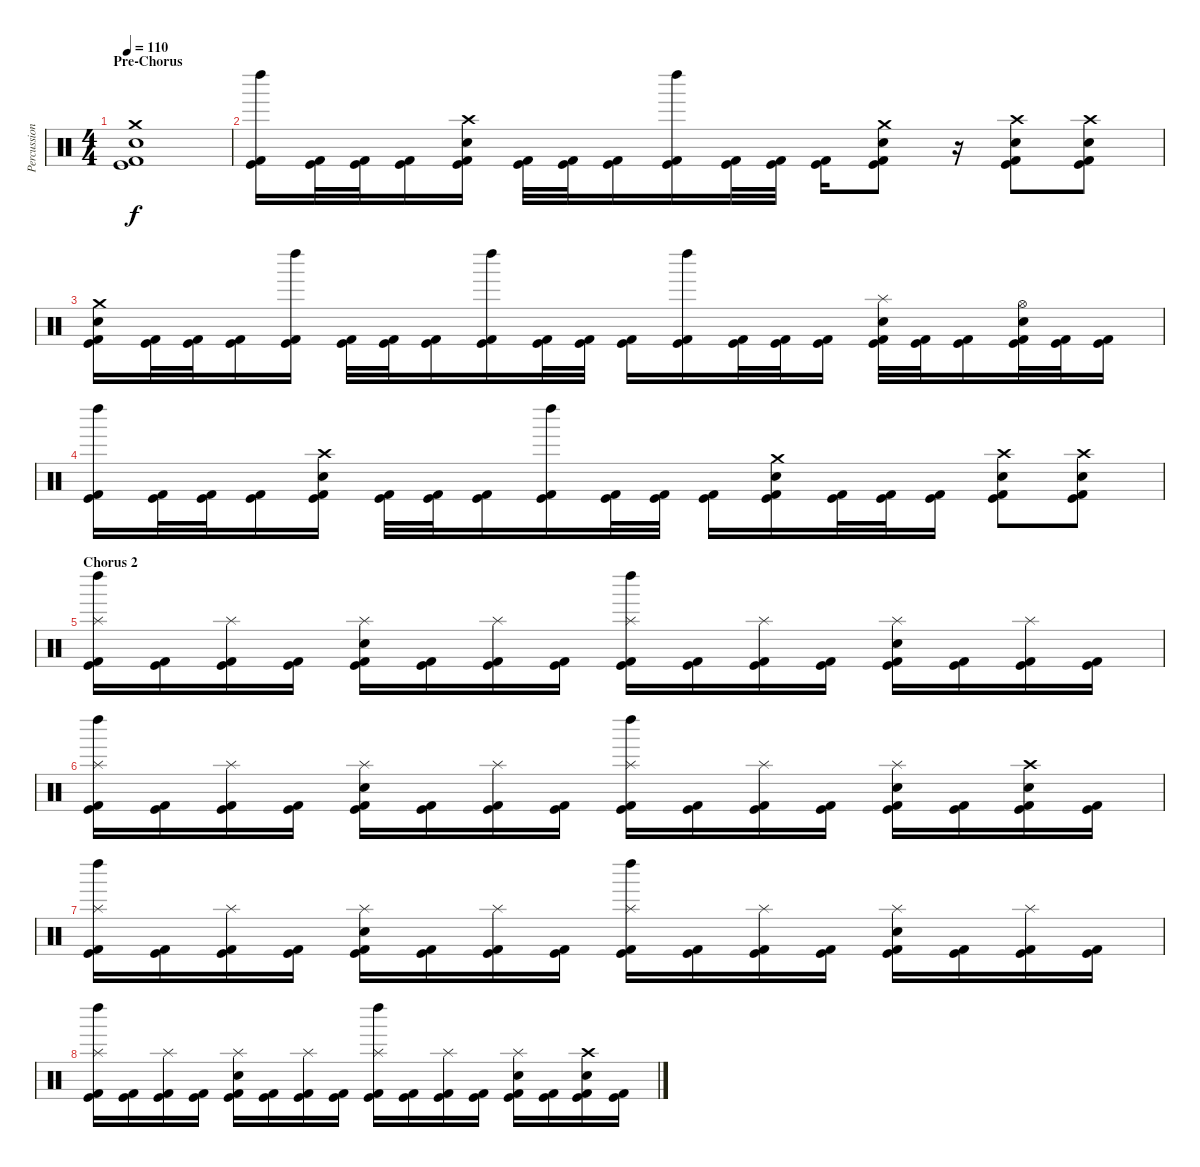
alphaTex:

\track ("Percussions" "Percussion") {instrument percussion}
\staff {score}
\articulation defaults
\ts (4 4)
\section ("" "Pre-Chorus")
\tempo 110
\clef neutral
\ks c
("Kick (hit)" "Kick (hit) 2" "Electric Snare (hit)" "Crash medium (hit)").1{dy f} |
("Kick (hit)" "Kick (hit) 2" "Left Maraca (hit)").16 ("Kick (hit)" "Kick (hit) 2").32 ("Kick (hit)" "Kick (hit) 2").32 ("Kick (hit)" "Kick (hit) 2").16 ("Kick (hit)" "Kick (hit) 2" "Electric Snare (hit)" "Crash high (hit)").16 ("Kick (hit)" "Kick (hit) 2").32 ("Kick (hit)" "Kick (hit) 2").32 ("Kick (hit)" "Kick (hit) 2").16 ("Kick (hit)" "Kick (hit) 2" "Left Maraca (hit)").16 ("Kick (hit)" "Kick (hit) 2").32 ("Kick (hit)" "Kick (hit) 2").32 ("Kick (hit)" "Kick (hit) 2").16 ("Kick (hit)" "Kick (hit) 2" "Electric Snare (hit)" "Crash medium (hit)").8 r.16 ("Kick (hit)" "Kick (hit) 2" "Electric Snare (hit)" "Crash high (hit)").8 ("Kick (hit)" "Kick (hit) 2" "Electric Snare (hit)" "Crash high (hit)").8 |
("Kick (hit)" "Kick (hit) 2" "Electric Snare (hit)" "Crash medium (hit)").16 ("Kick (hit)" "Kick (hit) 2").32 ("Kick (hit)" "Kick (hit) 2").32 ("Kick (hit)" "Kick (hit) 2").16 ("Kick (hit)" "Kick (hit) 2" "Left Maraca (hit)").16 ("Kick (hit)" "Kick (hit) 2").32 ("Kick (hit)" "Kick (hit) 2").32 ("Kick (hit)" "Kick (hit) 2").16 ("Kick (hit)" "Kick (hit) 2" "Left Maraca (hit)").16 ("Kick (hit)" "Kick (hit) 2").32 ("Kick (hit)" "Kick (hit) 2").32 ("Kick (hit)" "Kick (hit) 2").16 ("Kick (hit)" "Kick (hit) 2" "Left Maraca (hit)").16 ("Kick (hit)" "Kick (hit) 2").32 ("Kick (hit)" "Kick (hit) 2").32 ("Kick (hit)" "Kick (hit) 2").16 ("Kick (hit)" "Kick (hit) 2" "Electric Snare (hit)" "Splash (hit)").32 ("Kick (hit)" "Kick (hit) 2").32 ("Kick (hit)" "Kick (hit) 2").16 ("Kick (hit)" "Kick (hit) 2" "Electric Snare (hit)" "Hi-Hat (open)").32 ("Kick (hit)" "Kick (hit) 2").32 ("Kick (hit)" "Kick (hit) 2").16 |
("Kick (hit)" "Kick (hit) 2" "Left Maraca (hit)").16 ("Kick (hit)" "Kick (hit) 2").32 ("Kick (hit)" "Kick (hit) 2").32 ("Kick (hit)" "Kick (hit) 2").16 ("Kick (hit)" "Kick (hit) 2" "Electric Snare (hit)" "Crash high (hit)").16 ("Kick (hit)" "Kick (hit) 2").32 ("Kick (hit)" "Kick (hit) 2").32 ("Kick (hit)" "Kick (hit) 2").16 ("Kick (hit)" "Kick (hit) 2" "Left Maraca (hit)").16 ("Kick (hit)" "Kick (hit) 2").32 ("Kick (hit)" "Kick (hit) 2").32 ("Kick (hit)" "Kick (hit) 2").16 ("Kick (hit)" "Kick (hit) 2" "Electric Snare (hit)" "Crash medium (hit)").16 ("Kick (hit)" "Kick (hit) 2").32 ("Kick (hit)" "Kick (hit) 2").32 ("Kick (hit)" "Kick (hit) 2").16 ("Kick (hit)" "Kick (hit) 2" "Electric Snare (hit)" "Crash high (hit)").8 ("Kick (hit)" "Kick (hit) 2" "Electric Snare (hit)" "Crash high (hit)").8 |
\section ("" "Chorus 2")
("Kick (hit)" "Kick (hit) 2" "Splash (hit)" "Left Maraca (hit)").16 ("Kick (hit)" "Kick (hit) 2").16 ("Kick (hit)" "Kick (hit) 2" "Splash (hit)").16 ("Kick (hit)" "Kick (hit) 2").16 ("Kick (hit)" "Kick (hit) 2" "Splash (hit)" "Electric Snare (hit)").16 ("Kick (hit)" "Kick (hit) 2").16 ("Kick (hit)" "Kick (hit) 2" "Splash (hit)").16 ("Kick (hit)" "Kick (hit) 2").16 ("Kick (hit)" "Kick (hit) 2" "Splash (hit)" "Left Maraca (hit)").16 ("Kick (hit)" "Kick (hit) 2").16 ("Kick (hit)" "Kick (hit) 2" "Splash (hit)").16 ("Kick (hit)" "Kick (hit) 2").16 ("Kick (hit)" "Kick (hit) 2" "Splash (hit)" "Electric Snare (hit)").16 ("Kick (hit)" "Kick (hit) 2").16 ("Kick (hit)" "Kick (hit) 2" "Splash (hit)").16 ("Kick (hit)" "Kick (hit) 2").16 |
("Kick (hit)" "Kick (hit) 2" "Splash (hit)" "Left Maraca (hit)").16 ("Kick (hit)" "Kick (hit) 2").16 ("Kick (hit)" "Kick (hit) 2" "Splash (hit)").16 ("Kick (hit)" "Kick (hit) 2").16 ("Kick (hit)" "Kick (hit) 2" "Splash (hit)" "Electric Snare (hit)").16 ("Kick (hit)" "Kick (hit) 2").16 ("Kick (hit)" "Kick (hit) 2" "Splash (hit)").16 ("Kick (hit)" "Kick (hit) 2").16 ("Kick (hit)" "Kick (hit) 2" "Splash (hit)" "Left Maraca (hit)").16 ("Kick (hit)" "Kick (hit) 2").16 ("Kick (hit)" "Kick (hit) 2" "Splash (hit)").16 ("Kick (hit)" "Kick (hit) 2").16 ("Kick (hit)" "Kick (hit) 2" "Splash (hit)" "Electric Snare (hit)").16 ("Kick (hit)" "Kick (hit) 2").16 ("Kick (hit)" "Kick (hit) 2" "Crash high (hit)" "Electric Snare (hit)").16 ("Kick (hit)" "Kick (hit) 2").16 |
("Kick (hit)" "Kick (hit) 2" "Splash (hit)" "Left Maraca (hit)").16 ("Kick (hit)" "Kick (hit) 2").16 ("Kick (hit)" "Kick (hit) 2" "Splash (hit)").16 ("Kick (hit)" "Kick (hit) 2").16 ("Kick (hit)" "Kick (hit) 2" "Splash (hit)" "Electric Snare (hit)").16 ("Kick (hit)" "Kick (hit) 2").16 ("Kick (hit)" "Kick (hit) 2" "Splash (hit)").16 ("Kick (hit)" "Kick (hit) 2").16 ("Kick (hit)" "Kick (hit) 2" "Splash (hit)" "Left Maraca (hit)").16 ("Kick (hit)" "Kick (hit) 2").16 ("Kick (hit)" "Kick (hit) 2" "Splash (hit)").16 ("Kick (hit)" "Kick (hit) 2").16 ("Kick (hit)" "Kick (hit) 2" "Splash (hit)" "Electric Snare (hit)").16 ("Kick (hit)" "Kick (hit) 2").16 ("Kick (hit)" "Kick (hit) 2" "Splash (hit)").16 ("Kick (hit)" "Kick (hit) 2").16 |
("Kick (hit)" "Kick (hit) 2" "Splash (hit)" "Left Maraca (hit)").16 ("Kick (hit)" "Kick (hit) 2").16 ("Kick (hit)" "Kick (hit) 2" "Splash (hit)").16 ("Kick (hit)" "Kick (hit) 2").16 ("Kick (hit)" "Kick (hit) 2" "Splash (hit)" "Electric Snare (hit)").16 ("Kick (hit)" "Kick (hit) 2").16 ("Kick (hit)" "Kick (hit) 2" "Splash (hit)").16 ("Kick (hit)" "Kick (hit) 2").16 ("Kick (hit)" "Kick (hit) 2" "Splash (hit)" "Left Maraca (hit)").16 ("Kick (hit)" "Kick (hit) 2").16 ("Kick (hit)" "Kick (hit) 2" "Splash (hit)").16 ("Kick (hit)" "Kick (hit) 2").16 ("Kick (hit)" "Kick (hit) 2" "Splash (hit)" "Electric Snare (hit)").16 ("Kick (hit)" "Kick (hit) 2").16 ("Kick (hit)" "Kick (hit) 2" "Crash high (hit)" "Electric Snare (hit)").16 ("Kick (hit)" "Kick (hit) 2").16
